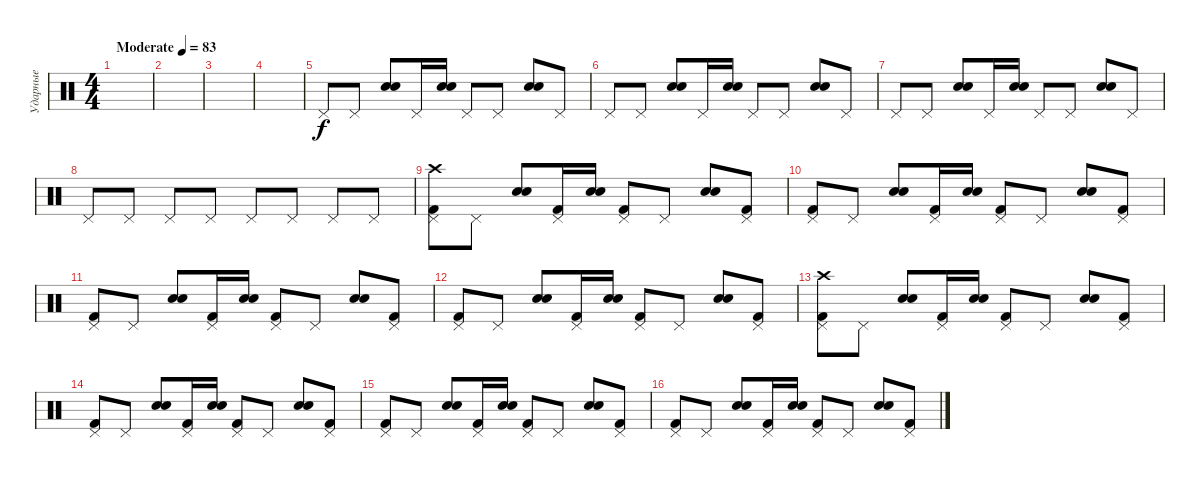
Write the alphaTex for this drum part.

\track ("Ударные" "Ударные") {instrument percussion}
\staff {score}
\articulation defaults
\ts (4 4)
\tempo (83 "Moderate")
\clef neutral
\ks c
|
|
|
|
"Pedal Hi-Hat (hit)".8 "Pedal Hi-Hat (hit)".8 ("Hand Clap (hit)" "Electric Snare (hit)").8 "Pedal Hi-Hat (hit)".16 ("Hand Clap (hit)" "Electric Snare (hit)").16 "Pedal Hi-Hat (hit)".8 "Pedal Hi-Hat (hit)".8 ("Hand Clap (hit)" "Electric Snare (hit)").8 "Pedal Hi-Hat (hit)".8 |
"Pedal Hi-Hat (hit)".8 "Pedal Hi-Hat (hit)".8 ("Hand Clap (hit)" "Electric Snare (hit)").8 "Pedal Hi-Hat (hit)".16 ("Hand Clap (hit)" "Electric Snare (hit)").16 "Pedal Hi-Hat (hit)".8 "Pedal Hi-Hat (hit)".8 ("Hand Clap (hit)" "Electric Snare (hit)").8 "Pedal Hi-Hat (hit)".8 |
"Pedal Hi-Hat (hit)".8 "Pedal Hi-Hat (hit)".8 ("Hand Clap (hit)" "Electric Snare (hit)").8 "Pedal Hi-Hat (hit)".16 ("Hand Clap (hit)" "Electric Snare (hit)").16 "Pedal Hi-Hat (hit)".8 "Pedal Hi-Hat (hit)".8 ("Hand Clap (hit)" "Electric Snare (hit)").8 "Pedal Hi-Hat (hit)".8 |
"Pedal Hi-Hat (hit)".8 "Pedal Hi-Hat (hit)".8 "Pedal Hi-Hat (hit)".8 "Pedal Hi-Hat (hit)".8 "Pedal Hi-Hat (hit)".8 "Pedal Hi-Hat (hit)".8 "Pedal Hi-Hat (hit)".8 "Pedal Hi-Hat (hit)".8 |
("Kick (hit) 2" "Pedal Hi-Hat (hit)" "Crash high (hit)").8{dy f} "Pedal Hi-Hat (hit)".8 ("Hand Clap (hit)" "Electric Snare (hit)").8 ("Kick (hit) 2" "Pedal Hi-Hat (hit)").16 ("Hand Clap (hit)" "Electric Snare (hit)").16 ("Kick (hit) 2" "Pedal Hi-Hat (hit)").8 "Pedal Hi-Hat (hit)".8 ("Hand Clap (hit)" "Electric Snare (hit)").8 ("Kick (hit) 2" "Pedal Hi-Hat (hit)").8 |
("Kick (hit) 2" "Pedal Hi-Hat (hit)").8 "Pedal Hi-Hat (hit)".8 ("Hand Clap (hit)" "Electric Snare (hit)").8 ("Kick (hit) 2" "Pedal Hi-Hat (hit)").16 ("Hand Clap (hit)" "Electric Snare (hit)").16 ("Kick (hit) 2" "Pedal Hi-Hat (hit)").8 "Pedal Hi-Hat (hit)".8 ("Hand Clap (hit)" "Electric Snare (hit)").8 ("Kick (hit) 2" "Pedal Hi-Hat (hit)").8 |
("Kick (hit) 2" "Pedal Hi-Hat (hit)").8 "Pedal Hi-Hat (hit)".8 ("Hand Clap (hit)" "Electric Snare (hit)").8 ("Kick (hit) 2" "Pedal Hi-Hat (hit)").16 ("Hand Clap (hit)" "Electric Snare (hit)").16 ("Kick (hit) 2" "Pedal Hi-Hat (hit)").8 "Pedal Hi-Hat (hit)".8 ("Hand Clap (hit)" "Electric Snare (hit)").8 ("Kick (hit) 2" "Pedal Hi-Hat (hit)").8 |
("Kick (hit) 2" "Pedal Hi-Hat (hit)").8 "Pedal Hi-Hat (hit)".8 ("Hand Clap (hit)" "Electric Snare (hit)").8 ("Kick (hit) 2" "Pedal Hi-Hat (hit)").16 ("Hand Clap (hit)" "Electric Snare (hit)").16 ("Kick (hit) 2" "Pedal Hi-Hat (hit)").8 "Pedal Hi-Hat (hit)".8 ("Hand Clap (hit)" "Electric Snare (hit)").8 ("Kick (hit) 2" "Pedal Hi-Hat (hit)").8 |
("Kick (hit) 2" "Pedal Hi-Hat (hit)" "Crash high (hit)").8 "Pedal Hi-Hat (hit)".8 ("Hand Clap (hit)" "Electric Snare (hit)").8 ("Kick (hit) 2" "Pedal Hi-Hat (hit)").16 ("Hand Clap (hit)" "Electric Snare (hit)").16 ("Kick (hit) 2" "Pedal Hi-Hat (hit)").8 "Pedal Hi-Hat (hit)".8 ("Hand Clap (hit)" "Electric Snare (hit)").8 ("Kick (hit) 2" "Pedal Hi-Hat (hit)").8 |
("Kick (hit) 2" "Pedal Hi-Hat (hit)").8 "Pedal Hi-Hat (hit)".8 ("Hand Clap (hit)" "Electric Snare (hit)").8 ("Kick (hit) 2" "Pedal Hi-Hat (hit)").16 ("Hand Clap (hit)" "Electric Snare (hit)").16 ("Kick (hit) 2" "Pedal Hi-Hat (hit)").8 "Pedal Hi-Hat (hit)".8 ("Hand Clap (hit)" "Electric Snare (hit)").8 ("Kick (hit) 2" "Pedal Hi-Hat (hit)").8 |
("Kick (hit) 2" "Pedal Hi-Hat (hit)").8 "Pedal Hi-Hat (hit)".8 ("Hand Clap (hit)" "Electric Snare (hit)").8 ("Kick (hit) 2" "Pedal Hi-Hat (hit)").16 ("Hand Clap (hit)" "Electric Snare (hit)").16 ("Kick (hit) 2" "Pedal Hi-Hat (hit)").8 "Pedal Hi-Hat (hit)".8 ("Hand Clap (hit)" "Electric Snare (hit)").8 ("Kick (hit) 2" "Pedal Hi-Hat (hit)").8 |
("Kick (hit) 2" "Pedal Hi-Hat (hit)").8 "Pedal Hi-Hat (hit)".8 ("Hand Clap (hit)" "Electric Snare (hit)").8 ("Kick (hit) 2" "Pedal Hi-Hat (hit)").16 ("Hand Clap (hit)" "Electric Snare (hit)").16 ("Kick (hit) 2" "Pedal Hi-Hat (hit)").8 "Pedal Hi-Hat (hit)".8 ("Hand Clap (hit)" "Electric Snare (hit)").8 ("Kick (hit) 2" "Pedal Hi-Hat (hit)").8
